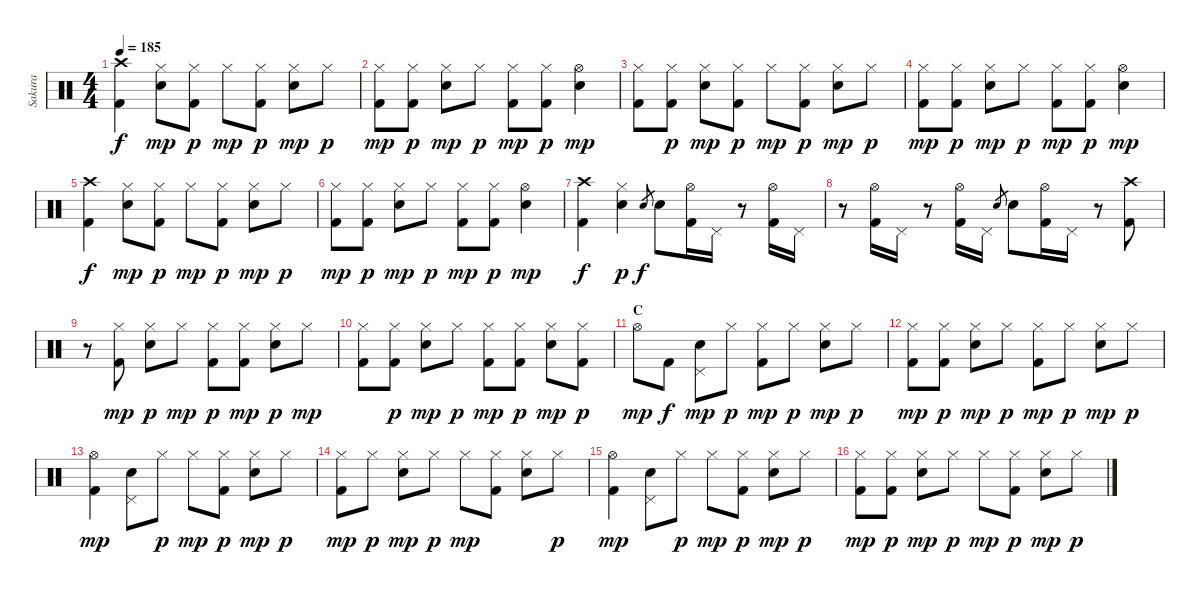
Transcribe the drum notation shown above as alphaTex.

\track ("Sakura" "Sakura") {instrument percussion}
\staff {score}
\articulation defaults
\ts (4 4)
\tempo 185
\clef neutral
\ks c
("Crash high (hit)" "Kick (hit) 2").4{dy f} ("Hi-Hat (closed)" "Electric Snare (hit)").8{dy mp} ("Hi-Hat (closed)" "Kick (hit) 2").8{dy p} "Hi-Hat (closed)".8{dy mp} ("Hi-Hat (closed)" "Kick (hit) 2").8{dy p} ("Hi-Hat (closed)" "Electric Snare (hit)").8{dy mp} "Hi-Hat (closed)".8{dy p} |
("Hi-Hat (closed)" "Kick (hit) 2").8{dy mp} ("Hi-Hat (closed)" "Kick (hit) 2").8{dy p} ("Hi-Hat (closed)" "Electric Snare (hit)").8{dy mp} "Hi-Hat (closed)".8{dy p} ("Hi-Hat (closed)" "Kick (hit) 2").8{dy mp} ("Hi-Hat (closed)" "Kick (hit) 2").8{dy p} ("Hi-Hat (open)" "Electric Snare (hit)").4{dy mp} |
("Hi-Hat (closed)" "Kick (hit) 2").8 ("Hi-Hat (closed)" "Kick (hit) 2").8{dy p} ("Hi-Hat (closed)" "Electric Snare (hit)").8{dy mp} ("Hi-Hat (closed)" "Kick (hit) 2").8{dy p} "Hi-Hat (closed)".8{dy mp} ("Hi-Hat (closed)" "Kick (hit) 2").8{dy p} ("Hi-Hat (closed)" "Electric Snare (hit)").8{dy mp} "Hi-Hat (closed)".8{dy p} |
("Hi-Hat (closed)" "Kick (hit) 2").8{dy mp} ("Hi-Hat (closed)" "Kick (hit) 2").8{dy p} ("Hi-Hat (closed)" "Electric Snare (hit)").8{dy mp} "Hi-Hat (closed)".8{dy p} ("Hi-Hat (closed)" "Kick (hit) 2").8{dy mp} ("Hi-Hat (closed)" "Kick (hit) 2").8{dy p} ("Hi-Hat (open)" "Electric Snare (hit)").4{dy mp} |
("Crash high (hit)" "Kick (hit) 2").4{dy f} ("Hi-Hat (closed)" "Electric Snare (hit)").8{dy mp} ("Hi-Hat (closed)" "Kick (hit) 2").8{dy p} "Hi-Hat (closed)".8{dy mp} ("Hi-Hat (closed)" "Kick (hit) 2").8{dy p} ("Hi-Hat (closed)" "Electric Snare (hit)").8{dy mp} "Hi-Hat (closed)".8{dy p} |
("Hi-Hat (closed)" "Kick (hit) 2").8{dy mp} ("Hi-Hat (closed)" "Kick (hit) 2").8{dy p} ("Hi-Hat (closed)" "Electric Snare (hit)").8{dy mp} "Hi-Hat (closed)".8{dy p} ("Hi-Hat (closed)" "Kick (hit) 2").8{dy mp} ("Hi-Hat (closed)" "Kick (hit) 2").8{dy p} ("Hi-Hat (open)" "Electric Snare (hit)").4{dy mp} |
("Crash high (hit)" "Kick (hit) 2").4{dy f} ("Hi-Hat (closed)" "Electric Snare (hit)").4{dy p} "Electric Snare (hit)".8{gr dy f} "Electric Snare (hit)".8 ("Hi-Hat (open)" "Kick (hit) 2").16 "Pedal Hi-Hat (hit)".16 r.8 ("Hi-Hat (open)" "Kick (hit) 2").16 "Pedal Hi-Hat (hit)".16 |
r.8 ("Hi-Hat (open)" "Kick (hit) 2").16 "Pedal Hi-Hat (hit)".16 r.8 ("Hi-Hat (open)" "Kick (hit) 2").16 "Pedal Hi-Hat (hit)".16 "Electric Snare (hit)".8{gr} "Electric Snare (hit)".8 ("Hi-Hat (open)" "Kick (hit) 2").16 "Pedal Hi-Hat (hit)".16 r.8 ("Crash high (hit)" "Kick (hit) 2").8 |
r.8 ("Hi-Hat (closed)" "Kick (hit) 2").8{dy mp} ("Hi-Hat (closed)" "Electric Snare (hit)").8{dy p} "Hi-Hat (closed)".8{dy mp} ("Hi-Hat (closed)" "Kick (hit) 2").8{dy p} ("Hi-Hat (closed)" "Kick (hit) 2").8{dy mp} ("Hi-Hat (closed)" "Electric Snare (hit)").8{dy p} "Hi-Hat (closed)".8{dy mp} |
("Hi-Hat (closed)" "Kick (hit) 2").8 ("Hi-Hat (closed)" "Kick (hit) 2").8{dy p} ("Hi-Hat (closed)" "Electric Snare (hit)").8{dy mp} "Hi-Hat (closed)".8{dy p} ("Hi-Hat (closed)" "Kick (hit) 2").8{dy mp} ("Hi-Hat (closed)" "Kick (hit) 2").8{dy p} ("Hi-Hat (closed)" "Electric Snare (hit)").8{dy mp} ("Hi-Hat (closed)" "Kick (hit) 2").8{dy p} |
\section ("" "C")
"Hi-Hat (open)".8{dy mp} "Kick (hit) 2".8{dy f} ("Pedal Hi-Hat (hit)" "Electric Snare (hit)").8{dy mp} "Hi-Hat (closed)".8{dy p} ("Hi-Hat (closed)" "Kick (hit) 2").8{dy mp} "Hi-Hat (closed)".8{dy p} ("Hi-Hat (closed)" "Electric Snare (hit)").8{dy mp} "Hi-Hat (closed)".8{dy p} |
("Hi-Hat (closed)" "Kick (hit) 2").8{dy mp} ("Hi-Hat (closed)" "Kick (hit) 2").8{dy p} ("Hi-Hat (closed)" "Electric Snare (hit)").8{dy mp} "Hi-Hat (closed)".8{dy p} ("Hi-Hat (closed)" "Kick (hit) 2").8{dy mp} "Hi-Hat (closed)".8{dy p} ("Hi-Hat (closed)" "Electric Snare (hit)").8{dy mp} "Hi-Hat (closed)".8{dy p} |
("Hi-Hat (open)" "Kick (hit) 2").4{dy mp} ("Pedal Hi-Hat (hit)" "Electric Snare (hit)").8 "Hi-Hat (closed)".8{dy p} "Hi-Hat (closed)".8{dy mp} ("Hi-Hat (closed)" "Kick (hit) 2").8{dy p} ("Hi-Hat (closed)" "Electric Snare (hit)").8{dy mp} "Hi-Hat (closed)".8{dy p} |
("Hi-Hat (closed)" "Kick (hit) 2").8{dy mp} "Hi-Hat (closed)".8{dy p} ("Hi-Hat (closed)" "Electric Snare (hit)").8{dy mp} "Hi-Hat (closed)".8{dy p} "Hi-Hat (closed)".8{dy mp} ("Hi-Hat (closed)" "Kick (hit) 2").8 ("Hi-Hat (closed)" "Electric Snare (hit)").8 "Hi-Hat (closed)".8{dy p} |
("Hi-Hat (open)" "Kick (hit) 2").4{dy mp} ("Pedal Hi-Hat (hit)" "Electric Snare (hit)").8 "Hi-Hat (closed)".8{dy p} "Hi-Hat (closed)".8{dy mp} ("Hi-Hat (closed)" "Kick (hit) 2").8{dy p} ("Hi-Hat (closed)" "Electric Snare (hit)").8{dy mp} "Hi-Hat (closed)".8{dy p} |
("Hi-Hat (closed)" "Kick (hit) 2").8{dy mp} ("Hi-Hat (closed)" "Kick (hit) 2").8{dy p} ("Hi-Hat (closed)" "Electric Snare (hit)").8{dy mp} "Hi-Hat (closed)".8{dy p} "Hi-Hat (closed)".8{dy mp} ("Hi-Hat (closed)" "Kick (hit) 2").8{dy p} ("Hi-Hat (closed)" "Electric Snare (hit)").8{dy mp} "Hi-Hat (closed)".8{dy p}
